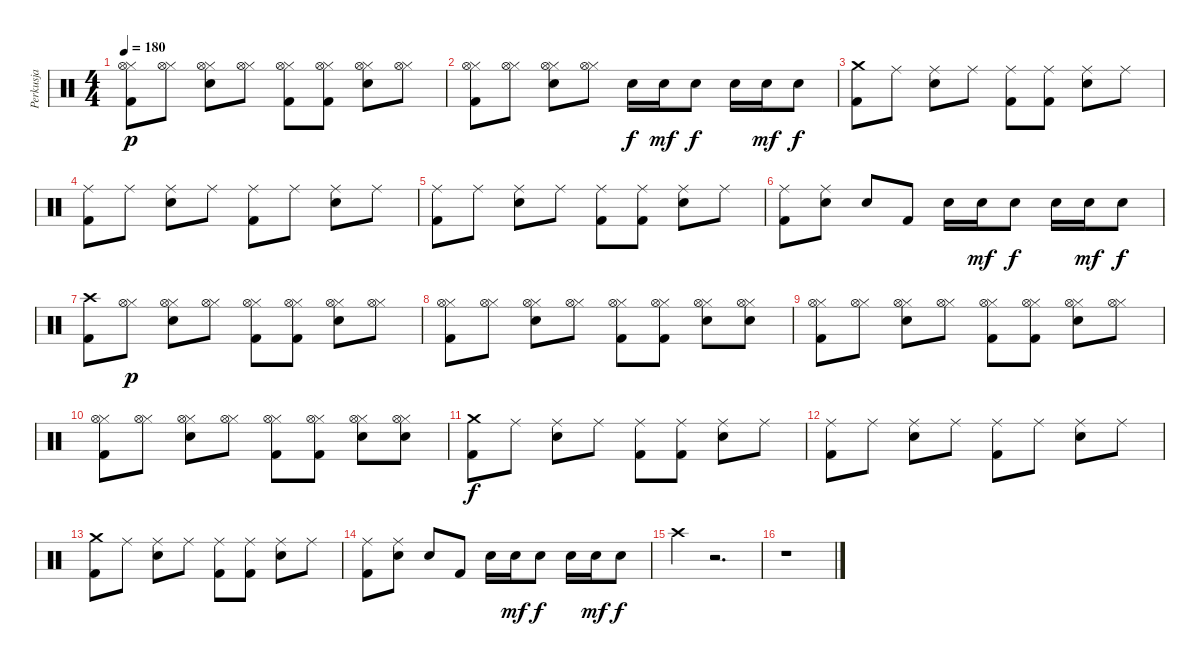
\track ("Perkusja" "Perkusja") {instrument percussion}
\staff {score}
\articulation defaults
\ts (4 4)
\tempo 180
\clef neutral
\ks c
("Kick (hit) 2" "Hi-Hat (closed)" "Hi-Hat (open)").8{dy p} ("Hi-Hat (closed)" "Hi-Hat (open)").8 ("Electric Snare (hit)" "Hi-Hat (closed)" "Hi-Hat (open)").8 ("Hi-Hat (closed)" "Hi-Hat (open)").8 ("Kick (hit) 2" "Hi-Hat (closed)" "Hi-Hat (open)").8 ("Kick (hit) 2" "Hi-Hat (closed)" "Hi-Hat (open)").8 ("Electric Snare (hit)" "Hi-Hat (closed)" "Hi-Hat (open)").8 ("Hi-Hat (closed)" "Hi-Hat (open)").8 |
("Kick (hit) 2" "Hi-Hat (closed)" "Hi-Hat (open)").8 ("Hi-Hat (closed)" "Hi-Hat (open)").8 ("Electric Snare (hit)" "Hi-Hat (closed)" "Hi-Hat (open)").8 ("Hi-Hat (closed)" "Hi-Hat (open)").8 "Electric Snare (hit)".16{dy f} "Electric Snare (hit)".16{dy mf} "Electric Snare (hit)".8{dy f} "Electric Snare (hit)".16 "Electric Snare (hit)".16{dy mf} "Electric Snare (hit)".8{dy f} |
("Kick (hit) 2" "Crash medium (hit)").8 "Ride (middle)".8 ("Electric Snare (hit)" "Ride (middle)").8 "Ride (middle)".8 ("Kick (hit) 2" "Ride (middle)").8 ("Kick (hit) 2" "Ride (middle)").8 ("Electric Snare (hit)" "Ride (middle)").8 "Ride (middle)".8 |
("Kick (hit) 2" "Ride (middle)").8 "Ride (middle)".8 ("Electric Snare (hit)" "Ride (middle)").8 "Ride (middle)".8 ("Kick (hit) 2" "Ride (middle)").8 "Ride (middle)".8 ("Electric Snare (hit)" "Ride (middle)").8 "Ride (middle)".8 |
("Kick (hit) 2" "Ride (middle)").8 "Ride (middle)".8 ("Electric Snare (hit)" "Ride (middle)").8 "Ride (middle)".8 ("Kick (hit) 2" "Ride (middle)").8 ("Kick (hit) 2" "Ride (middle)").8 ("Electric Snare (hit)" "Ride (middle)").8 "Ride (middle)".8 |
("Kick (hit) 2" "Ride (middle)").8 ("Electric Snare (hit)" "Ride (middle)").8 "Electric Snare (hit)".8 "Kick (hit) 2".8 "Electric Snare (hit)".16 "Electric Snare (hit)".16{dy mf} "Electric Snare (hit)".8{dy f} "Electric Snare (hit)".16 "Electric Snare (hit)".16{dy mf} "Electric Snare (hit)".8{dy f} |
("Kick (hit) 2" "Crash high (hit)").8 ("Hi-Hat (closed)" "Hi-Hat (open)").8{dy p} ("Electric Snare (hit)" "Hi-Hat (closed)" "Hi-Hat (open)").8 ("Hi-Hat (closed)" "Hi-Hat (open)").8 ("Kick (hit) 2" "Hi-Hat (closed)" "Hi-Hat (open)").8 ("Kick (hit) 2" "Hi-Hat (closed)" "Hi-Hat (open)").8 ("Electric Snare (hit)" "Hi-Hat (closed)" "Hi-Hat (open)").8 ("Hi-Hat (closed)" "Hi-Hat (open)").8 |
("Kick (hit) 2" "Hi-Hat (closed)" "Hi-Hat (open)").8 ("Hi-Hat (closed)" "Hi-Hat (open)").8 ("Electric Snare (hit)" "Hi-Hat (closed)" "Hi-Hat (open)").8 ("Hi-Hat (closed)" "Hi-Hat (open)").8 ("Kick (hit) 2" "Hi-Hat (closed)" "Hi-Hat (open)").8 ("Kick (hit) 2" "Hi-Hat (closed)" "Hi-Hat (open)").8 ("Electric Snare (hit)" "Hi-Hat (closed)" "Hi-Hat (open)").8 ("Electric Snare (hit)" "Hi-Hat (closed)" "Hi-Hat (open)").8 |
("Kick (hit) 2" "Hi-Hat (closed)" "Hi-Hat (open)").8 ("Hi-Hat (closed)" "Hi-Hat (open)").8 ("Electric Snare (hit)" "Hi-Hat (closed)" "Hi-Hat (open)").8 ("Hi-Hat (closed)" "Hi-Hat (open)").8 ("Kick (hit) 2" "Hi-Hat (closed)" "Hi-Hat (open)").8 ("Kick (hit) 2" "Hi-Hat (closed)" "Hi-Hat (open)").8 ("Electric Snare (hit)" "Hi-Hat (closed)" "Hi-Hat (open)").8 ("Hi-Hat (closed)" "Hi-Hat (open)").8 |
("Kick (hit) 2" "Hi-Hat (closed)" "Hi-Hat (open)").8 ("Hi-Hat (closed)" "Hi-Hat (open)").8 ("Electric Snare (hit)" "Hi-Hat (closed)" "Hi-Hat (open)").8 ("Hi-Hat (closed)" "Hi-Hat (open)").8 ("Kick (hit) 2" "Hi-Hat (closed)" "Hi-Hat (open)").8 ("Kick (hit) 2" "Hi-Hat (closed)" "Hi-Hat (open)").8 ("Electric Snare (hit)" "Hi-Hat (closed)" "Hi-Hat (open)").8 ("Electric Snare (hit)" "Hi-Hat (closed)" "Hi-Hat (open)").8 |
("Kick (hit) 2" "Crash medium (hit)").8{dy f} "Ride (middle)".8 ("Electric Snare (hit)" "Ride (middle)").8 "Ride (middle)".8 ("Kick (hit) 2" "Ride (middle)").8 ("Kick (hit) 2" "Ride (middle)").8 ("Electric Snare (hit)" "Ride (middle)").8 "Ride (middle)".8 |
("Kick (hit) 2" "Ride (middle)").8 "Ride (middle)".8 ("Electric Snare (hit)" "Ride (middle)").8 "Ride (middle)".8 ("Kick (hit) 2" "Ride (middle)").8 "Ride (middle)".8 ("Electric Snare (hit)" "Ride (middle)").8 "Ride (middle)".8 |
("Kick (hit) 2" "Crash medium (hit)").8 "Ride (middle)".8 ("Electric Snare (hit)" "Ride (middle)").8 "Ride (middle)".8 ("Kick (hit) 2" "Ride (middle)").8 ("Kick (hit) 2" "Ride (middle)").8 ("Electric Snare (hit)" "Ride (middle)").8 "Ride (middle)".8 |
("Kick (hit) 2" "Ride (middle)").8 ("Electric Snare (hit)" "Ride (middle)").8 "Electric Snare (hit)".8 "Kick (hit) 2".8 "Electric Snare (hit)".16 "Electric Snare (hit)".16{dy mf} "Electric Snare (hit)".8{dy f} "Electric Snare (hit)".16 "Electric Snare (hit)".16{dy mf} "Electric Snare (hit)".8{dy f} |
"Crash high (hit)".4 r.2{d} |
r.1
